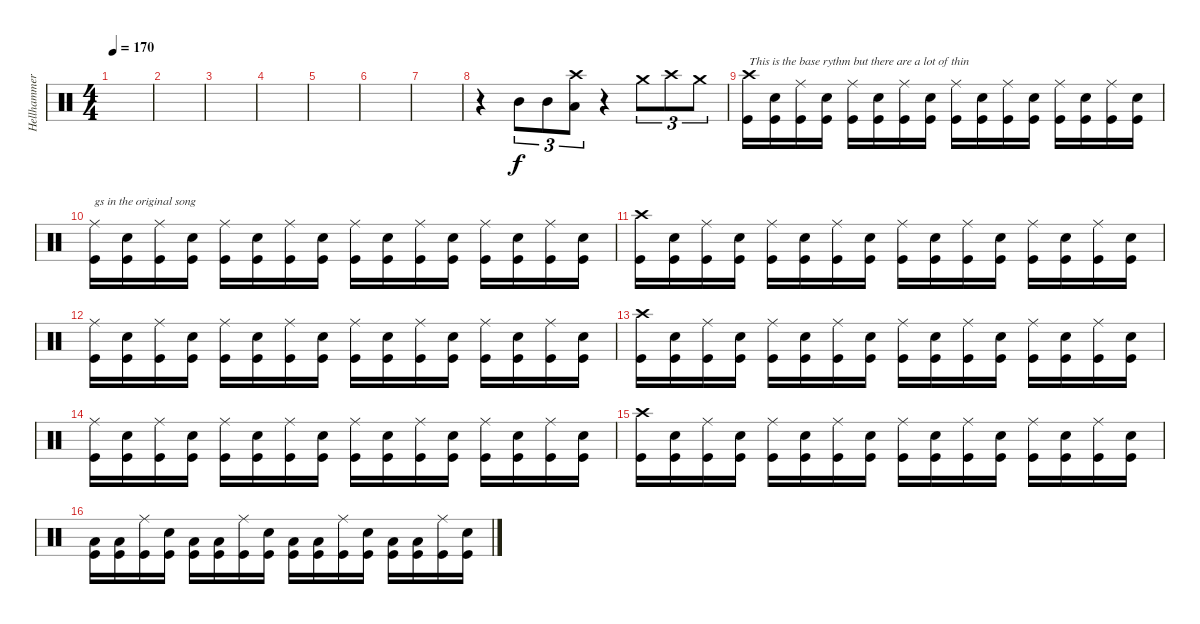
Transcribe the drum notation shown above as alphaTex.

\track ("Hellhammer" "Hellhammer") {instrument percussion}
\staff {score}
\articulation defaults
\ts (4 4)
\tempo 170
\clef neutral
\ks c
|
|
|
|
|
|
|
r.4 "Mid Tom (hit)".8{tu (3 2)} "Mid Tom (hit)".8{tu (3 2)} ("Crash high (hit)" "Low Tom (hit)").8{tu (3 2)} r.4 "Crash medium (hit)".8{tu (3 2)} "Crash high (hit)".8{tu (3 2)} "Crash medium (hit)".8{tu (3 2)} |
("Crash high (hit)" "Kick (hit)").16{txt "This is the base rythm but there are a lot of thin"} ("Electric Snare (hit)" "Kick (hit)").16 ("Ride (middle)" "Kick (hit)").16 ("Electric Snare (hit)" "Kick (hit)").16 ("Ride (middle)" "Kick (hit)").16 ("Electric Snare (hit)" "Kick (hit)").16 ("Ride (middle)" "Kick (hit)").16 ("Electric Snare (hit)" "Kick (hit)").16 ("Ride (middle)" "Kick (hit)").16 ("Electric Snare (hit)" "Kick (hit)").16 ("Ride (middle)" "Kick (hit)").16 ("Electric Snare (hit)" "Kick (hit)").16 ("Ride (middle)" "Kick (hit)").16 ("Electric Snare (hit)" "Kick (hit)").16 ("Ride (middle)" "Kick (hit)").16 ("Electric Snare (hit)" "Kick (hit)").16 |
("Ride (middle)" "Kick (hit)").16{txt "gs in the original song"} ("Electric Snare (hit)" "Kick (hit)").16 ("Ride (middle)" "Kick (hit)").16 ("Electric Snare (hit)" "Kick (hit)").16 ("Ride (middle)" "Kick (hit)").16 ("Electric Snare (hit)" "Kick (hit)").16 ("Ride (middle)" "Kick (hit)").16 ("Electric Snare (hit)" "Kick (hit)").16 ("Ride (middle)" "Kick (hit)").16 ("Electric Snare (hit)" "Kick (hit)").16 ("Ride (middle)" "Kick (hit)").16 ("Electric Snare (hit)" "Kick (hit)").16 ("Ride (middle)" "Kick (hit)").16 ("Electric Snare (hit)" "Kick (hit)").16 ("Ride (middle)" "Kick (hit)").16 ("Electric Snare (hit)" "Kick (hit)").16 |
("Crash high (hit)" "Kick (hit)").16 ("Electric Snare (hit)" "Kick (hit)").16 ("Ride (middle)" "Kick (hit)").16 ("Electric Snare (hit)" "Kick (hit)").16 ("Ride (middle)" "Kick (hit)").16 ("Electric Snare (hit)" "Kick (hit)").16 ("Ride (middle)" "Kick (hit)").16 ("Electric Snare (hit)" "Kick (hit)").16 ("Ride (middle)" "Kick (hit)").16 ("Electric Snare (hit)" "Kick (hit)").16 ("Ride (middle)" "Kick (hit)").16 ("Electric Snare (hit)" "Kick (hit)").16 ("Ride (middle)" "Kick (hit)").16 ("Electric Snare (hit)" "Kick (hit)").16 ("Ride (middle)" "Kick (hit)").16 ("Electric Snare (hit)" "Kick (hit)").16 |
("Ride (middle)" "Kick (hit)").16 ("Electric Snare (hit)" "Kick (hit)").16 ("Ride (middle)" "Kick (hit)").16 ("Electric Snare (hit)" "Kick (hit)").16 ("Ride (middle)" "Kick (hit)").16 ("Electric Snare (hit)" "Kick (hit)").16 ("Ride (middle)" "Kick (hit)").16 ("Electric Snare (hit)" "Kick (hit)").16 ("Ride (middle)" "Kick (hit)").16 ("Electric Snare (hit)" "Kick (hit)").16 ("Ride (middle)" "Kick (hit)").16 ("Electric Snare (hit)" "Kick (hit)").16 ("Ride (middle)" "Kick (hit)").16 ("Electric Snare (hit)" "Kick (hit)").16 ("Ride (middle)" "Kick (hit)").16 ("Electric Snare (hit)" "Kick (hit)").16 |
("Crash high (hit)" "Kick (hit)").16 ("Electric Snare (hit)" "Kick (hit)").16 ("Ride (middle)" "Kick (hit)").16 ("Electric Snare (hit)" "Kick (hit)").16 ("Ride (middle)" "Kick (hit)").16 ("Electric Snare (hit)" "Kick (hit)").16 ("Ride (middle)" "Kick (hit)").16 ("Electric Snare (hit)" "Kick (hit)").16 ("Ride (middle)" "Kick (hit)").16 ("Electric Snare (hit)" "Kick (hit)").16 ("Ride (middle)" "Kick (hit)").16 ("Electric Snare (hit)" "Kick (hit)").16 ("Ride (middle)" "Kick (hit)").16 ("Electric Snare (hit)" "Kick (hit)").16 ("Ride (middle)" "Kick (hit)").16 ("Electric Snare (hit)" "Kick (hit)").16 |
("Ride (middle)" "Kick (hit)").16 ("Electric Snare (hit)" "Kick (hit)").16 ("Ride (middle)" "Kick (hit)").16 ("Electric Snare (hit)" "Kick (hit)").16 ("Ride (middle)" "Kick (hit)").16 ("Electric Snare (hit)" "Kick (hit)").16 ("Ride (middle)" "Kick (hit)").16 ("Electric Snare (hit)" "Kick (hit)").16 ("Ride (middle)" "Kick (hit)").16 ("Electric Snare (hit)" "Kick (hit)").16 ("Ride (middle)" "Kick (hit)").16 ("Electric Snare (hit)" "Kick (hit)").16 ("Ride (middle)" "Kick (hit)").16 ("Electric Snare (hit)" "Kick (hit)").16 ("Ride (middle)" "Kick (hit)").16 ("Electric Snare (hit)" "Kick (hit)").16 |
("Crash high (hit)" "Kick (hit)").16 ("Electric Snare (hit)" "Kick (hit)").16 ("Ride (middle)" "Kick (hit)").16 ("Electric Snare (hit)" "Kick (hit)").16 ("Ride (middle)" "Kick (hit)").16 ("Electric Snare (hit)" "Kick (hit)").16 ("Ride (middle)" "Kick (hit)").16 ("Electric Snare (hit)" "Kick (hit)").16 ("Ride (middle)" "Kick (hit)").16 ("Electric Snare (hit)" "Kick (hit)").16 ("Ride (middle)" "Kick (hit)").16 ("Electric Snare (hit)" "Kick (hit)").16 ("Ride (middle)" "Kick (hit)").16 ("Electric Snare (hit)" "Kick (hit)").16 ("Ride (middle)" "Kick (hit)").16 ("Electric Snare (hit)" "Kick (hit)").16 |
("Low Tom (hit)" "Kick (hit)").16 ("Low Tom (hit)" "Kick (hit)").16 ("Ride (middle)" "Kick (hit)").16 ("Electric Snare (hit)" "Kick (hit)").16 ("Low Tom (hit)" "Kick (hit)").16 ("Low Tom (hit)" "Kick (hit)").16 ("Ride (middle)" "Kick (hit)").16 ("Electric Snare (hit)" "Kick (hit)").16 ("Low Tom (hit)" "Kick (hit)").16 ("Low Tom (hit)" "Kick (hit)").16 ("Ride (middle)" "Kick (hit)").16 ("Electric Snare (hit)" "Kick (hit)").16 ("Low Tom (hit)" "Kick (hit)").16 ("Low Tom (hit)" "Kick (hit)").16 ("Ride (middle)" "Kick (hit)").16 ("Electric Snare (hit)" "Kick (hit)").16
